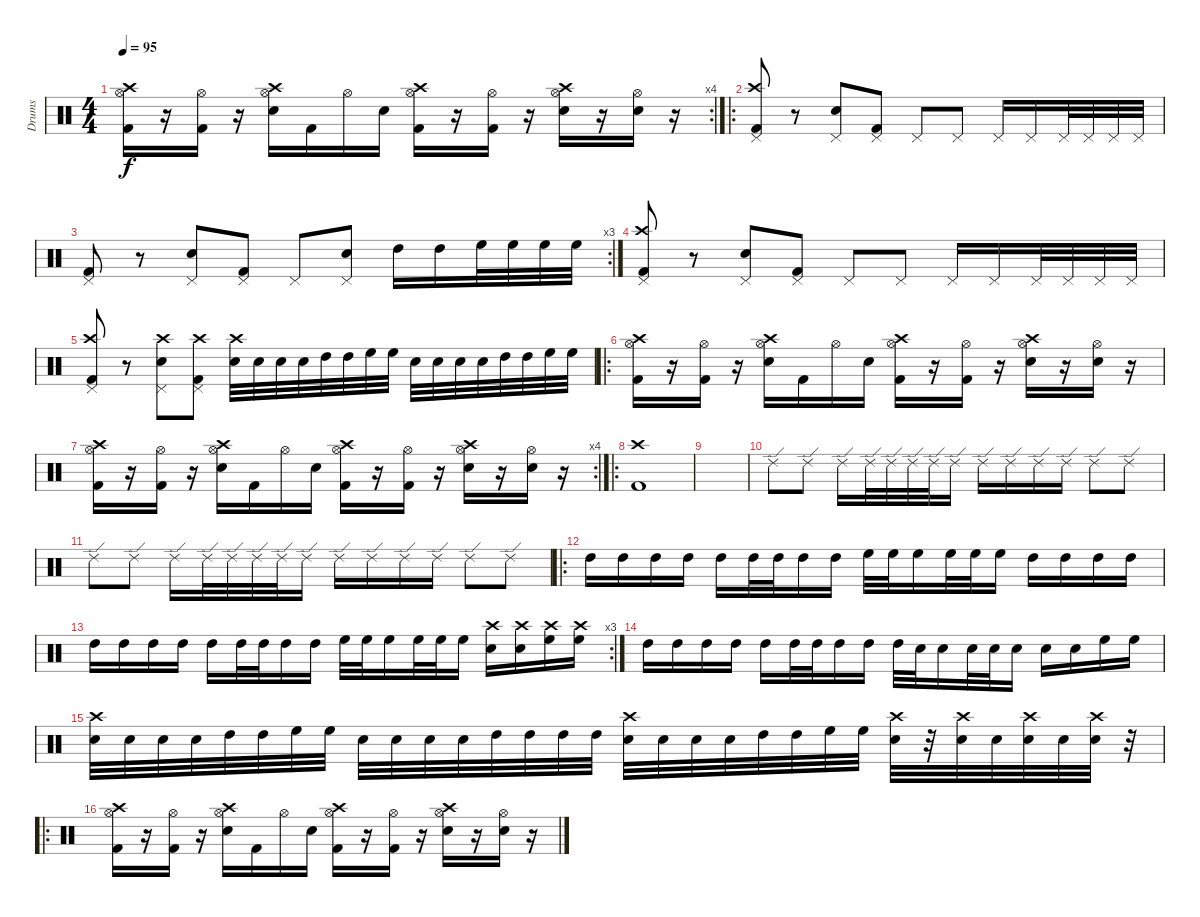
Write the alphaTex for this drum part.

\track ("Drums" "Drums") {instrument percussion}
\staff {score}
\articulation defaults
\rc 4
\ts (4 4)
\tempo 95
\clef neutral
\ks c
("Kick (hit) 2" "Hi-Hat (open)" "Crash high (hit)").16{dy f} r.16 ("Kick (hit) 2" "Hi-Hat (open)").16 r.16 ("Electric Snare (hit)" "Hi-Hat (open)" "Crash high (hit)").16 "Kick (hit) 2".16 "Hi-Hat (open)".16 "Electric Snare (hit)".16 ("Kick (hit) 2" "Hi-Hat (open)" "Crash high (hit)").16 r.16 ("Kick (hit) 2" "Hi-Hat (open)").16 r.16 ("Electric Snare (hit)" "Hi-Hat (open)" "Crash high (hit)").16 r.16 ("Electric Snare (hit)" "Hi-Hat (open)").16 r.16 |
\ro
("Kick (hit) 2" "Pedal Hi-Hat (hit)" "Crash high (hit)").8 r.8 ("Electric Snare (hit)" "Pedal Hi-Hat (hit)").8 ("Kick (hit) 2" "Pedal Hi-Hat (hit)").8 "Pedal Hi-Hat (hit)".8 "Pedal Hi-Hat (hit)".8 "Pedal Hi-Hat (hit)".16 "Pedal Hi-Hat (hit)".16 "Pedal Hi-Hat (hit)".32 "Pedal Hi-Hat (hit)".32 "Pedal Hi-Hat (hit)".32 "Pedal Hi-Hat (hit)".32 |
\rc 3
("Kick (hit) 2" "Pedal Hi-Hat (hit)").8 r.8 ("Electric Snare (hit)" "Pedal Hi-Hat (hit)").8 ("Kick (hit) 2" "Pedal Hi-Hat (hit)").8 "Pedal Hi-Hat (hit)".8 ("Electric Snare (hit)" "Pedal Hi-Hat (hit)").8 "High Tom (hit)".16 "High Tom (hit)".16 "High Floor Tom (hit)".32 "High Floor Tom (hit)".32 "High Floor Tom (hit)".32 "High Floor Tom (hit)".32 |
("Kick (hit) 2" "Pedal Hi-Hat (hit)" "Crash high (hit)").8 r.8 ("Electric Snare (hit)" "Pedal Hi-Hat (hit)").8 ("Kick (hit) 2" "Pedal Hi-Hat (hit)").8 "Pedal Hi-Hat (hit)".8 "Pedal Hi-Hat (hit)".8 "Pedal Hi-Hat (hit)".16 "Pedal Hi-Hat (hit)".16 "Pedal Hi-Hat (hit)".32 "Pedal Hi-Hat (hit)".32 "Pedal Hi-Hat (hit)".32 "Pedal Hi-Hat (hit)".32 |
("Kick (hit) 2" "Pedal Hi-Hat (hit)" "Crash high (hit)").8 r.8 ("Electric Snare (hit)" "Pedal Hi-Hat (hit)" "Crash high (hit)").8 ("Kick (hit) 2" "Pedal Hi-Hat (hit)" "Crash high (hit)").8 ("Electric Snare (hit)" "Crash high (hit)").32 "Electric Snare (hit)".32 "Electric Snare (hit)".32 "Electric Snare (hit)".32 "High Tom (hit)".32 "High Tom (hit)".32 "High Floor Tom (hit)".32 "High Floor Tom (hit)".32 "Electric Snare (hit)".32 "Electric Snare (hit)".32 "Electric Snare (hit)".32 "Electric Snare (hit)".32 "High Tom (hit)".32 "High Tom (hit)".32 "High Floor Tom (hit)".32 "High Floor Tom (hit)".32 |
\ro
("Kick (hit) 2" "Hi-Hat (open)" "Crash high (hit)").16 r.16 ("Kick (hit) 2" "Hi-Hat (open)").16 r.16 ("Electric Snare (hit)" "Hi-Hat (open)" "Crash high (hit)").16 "Kick (hit) 2".16 "Hi-Hat (open)".16 "Electric Snare (hit)".16 ("Kick (hit) 2" "Hi-Hat (open)" "Crash high (hit)").16 r.16 ("Kick (hit) 2" "Hi-Hat (open)").16 r.16 ("Electric Snare (hit)" "Hi-Hat (open)" "Crash high (hit)").16 r.16 ("Electric Snare (hit)" "Hi-Hat (open)").16 r.16 |
\rc 4
("Kick (hit) 2" "Hi-Hat (open)" "Crash high (hit)").16 r.16 ("Kick (hit) 2" "Hi-Hat (open)").16 r.16 ("Electric Snare (hit)" "Hi-Hat (open)" "Crash high (hit)").16 "Kick (hit) 2".16 "Hi-Hat (open)".16 "Electric Snare (hit)".16 ("Kick (hit) 2" "Hi-Hat (open)" "Crash high (hit)").16 r.16 ("Kick (hit) 2" "Hi-Hat (open)").16 r.16 ("Electric Snare (hit)" "Hi-Hat (open)" "Crash high (hit)").16 r.16 ("Electric Snare (hit)" "Hi-Hat (open)").16 r.16 |
\ro
("Crash high (hit)" "Kick (hit) 2").1 |
|
"Ride (edge) 2".8 "Ride (edge) 2".8 "Ride (edge) 2".16 "Ride (edge) 2".32 "Ride (edge) 2".32 "Ride (edge) 2".32 "Ride (edge) 2".32 "Ride (edge) 2".16 "Ride (edge) 2".16 "Ride (edge) 2".16 "Ride (edge) 2".16 "Ride (edge) 2".16 "Ride (edge) 2".8 "Ride (edge) 2".8 |
"Ride (edge) 2".8 "Ride (edge) 2".8 "Ride (edge) 2".16 "Ride (edge) 2".32 "Ride (edge) 2".32 "Ride (edge) 2".32 "Ride (edge) 2".32 "Ride (edge) 2".16 "Ride (edge) 2".16 "Ride (edge) 2".16 "Ride (edge) 2".16 "Ride (edge) 2".16 "Ride (edge) 2".8 "Ride (edge) 2".8 |
\ro "High Tom (hit)".16 "High Tom (hit)".16 "High Tom (hit)".16 "High Tom (hit)".16 "High Tom (hit)".16 "High Tom (hit)".32 "High Tom (hit)".32 "High Tom (hit)".16 "High Tom (hit)".16 "High Floor Tom (hit)".32 "High Floor Tom (hit)".32 "High Floor Tom (hit)".16 "High Floor Tom (hit)".32 "High Floor Tom (hit)".32 "High Floor Tom (hit)".16 "High Tom (hit)".16 "High Tom (hit)".16 "High Tom (hit)".16 "High Tom (hit)".16
|
\rc 3 "High Tom (hit)".16 "High Tom (hit)".16 "High Tom (hit)".16 "High Tom (hit)".16 "High Tom (hit)".16 "High Tom (hit)".32 "High Tom (hit)".32 "High Tom (hit)".16 "High Tom (hit)".16 "High Floor Tom (hit)".32 "High Floor Tom (hit)".32 "High Floor Tom (hit)".16 "High Floor Tom (hit)".32 "High Floor Tom (hit)".32 "High Floor Tom (hit)".16
("Electric Snare (hit)" "Crash high (hit)").16 ("Electric Snare (hit)" "Crash high (hit)").16 ("High Floor Tom (hit)" "Crash high (hit)").16 ("High Floor Tom (hit)" "Crash high (hit)").16 |
"High Tom (hit)".16 "High Tom (hit)".16 "High Tom (hit)".16 "High Tom (hit)".16 "High Tom (hit)".16 "High Tom (hit)".32 "High Tom (hit)".32 "High Tom (hit)".16 "High Tom (hit)".16 "High Tom (hit)".32 "Electric Snare (hit)".32 "Electric Snare (hit)".16 "Electric Snare (hit)".32 "Electric Snare (hit)".32 "Electric Snare (hit)".16 "Electric Snare (hit)".16 "Electric Snare (hit)".16 "High Floor Tom (hit)".16 "High Floor Tom (hit)".16 |
("Electric Snare (hit)" "Crash high (hit)").32 "Electric Snare (hit)".32 "Electric Snare (hit)".32 "Electric Snare (hit)".32 "High Tom (hit)".32 "High Tom (hit)".32 "High Floor Tom (hit)".32 "High Floor Tom (hit)".32 "Electric Snare (hit)".32 "Electric Snare (hit)".32 "Electric Snare (hit)".32 "Electric Snare (hit)".32 "High Tom (hit)".32 "High Tom (hit)".32 "High Tom (hit)".32 "High Tom (hit)".32 ("Electric Snare (hit)" "Crash high (hit)").32 "Electric Snare (hit)".32 "Electric Snare (hit)".32 "Electric Snare (hit)".32 "High Tom (hit)".32 "High Tom (hit)".32 "High Floor Tom (hit)".32 "High Floor Tom (hit)".32 ("Electric Snare (hit)" "Crash high (hit)").32 r.32 ("Electric Snare (hit)" "Crash high (hit)").32 "Electric Snare (hit)".32 ("Electric Snare (hit)" "Crash high (hit)").32 "Electric Snare (hit)".32 ("Electric Snare (hit)" "Crash high (hit)").32 r.32 |
\ro
("Kick (hit) 2" "Hi-Hat (open)" "Crash high (hit)").16 r.16 ("Kick (hit) 2" "Hi-Hat (open)").16 r.16 ("Electric Snare (hit)" "Hi-Hat (open)" "Crash high (hit)").16 "Kick (hit) 2".16 "Hi-Hat (open)".16 "Electric Snare (hit)".16 ("Kick (hit) 2" "Hi-Hat (open)" "Crash high (hit)").16 r.16 ("Kick (hit) 2" "Hi-Hat (open)").16 r.16 ("Electric Snare (hit)" "Hi-Hat (open)" "Crash high (hit)").16 r.16 ("Electric Snare (hit)" "Hi-Hat (open)").16 r.16
